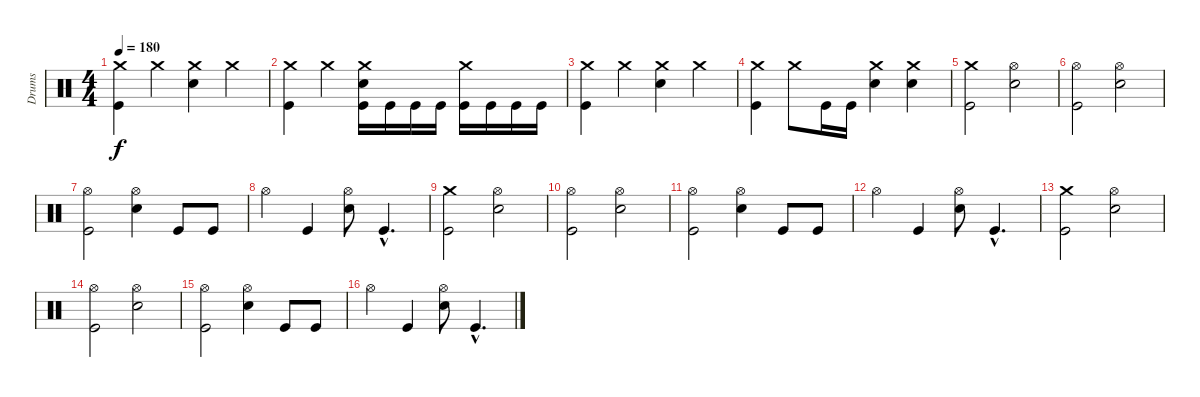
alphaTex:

\track ("Drums" "Drums") {instrument percussion}
\staff {score}
\articulation defaults
\ts (4 4)
\tempo 180
\clef neutral
\ks c
("Crash medium (hit)" "Kick (hit)").4{dy f} "Crash medium (hit)".4 ("Crash medium (hit)" "Electric Snare (hit)").4 "Crash medium (hit)".4 |
("Crash medium (hit)" "Kick (hit)").4 "Crash medium (hit)".4 ("Crash medium (hit)" "Kick (hit)" "Electric Snare (hit)").16 "Kick (hit)".16 "Kick (hit)".16 "Kick (hit)".16 ("Crash medium (hit)" "Kick (hit)").16 "Kick (hit)".16 "Kick (hit)".16 "Kick (hit)".16 |
("Crash medium (hit)" "Kick (hit)").4 "Crash medium (hit)".4 ("Crash medium (hit)" "Electric Snare (hit)").4 "Crash medium (hit)".4 |
("Crash medium (hit)" "Kick (hit)").4 "Crash medium (hit)".8 "Kick (hit)".16 "Kick (hit)".16 ("Crash medium (hit)" "Electric Snare (hit)").4 ("Crash medium (hit)" "Electric Snare (hit)").4 |
("Crash medium (hit)" "Kick (hit)").2 ("Hi-Hat (open)" "Electric Snare (hit)").2 |
("Hi-Hat (open)" "Kick (hit)").2 ("Hi-Hat (open)" "Electric Snare (hit)").2 |
("Hi-Hat (open)" "Kick (hit)").2 ("Hi-Hat (open)" "Electric Snare (hit)").4 "Kick (hit)".8 "Kick (hit)".8 |
"Hi-Hat (open)".4 "Kick (hit)".4 ("Hi-Hat (open)" "Electric Snare (hit)").8 "Kick (hit)"{hac}.4{d} |
("Crash medium (hit)" "Kick (hit)").2 ("Hi-Hat (open)" "Electric Snare (hit)").2 |
("Hi-Hat (open)" "Kick (hit)").2 ("Hi-Hat (open)" "Electric Snare (hit)").2 |
("Hi-Hat (open)" "Kick (hit)").2 ("Hi-Hat (open)" "Electric Snare (hit)").4 "Kick (hit)".8 "Kick (hit)".8 |
"Hi-Hat (open)".4 "Kick (hit)".4 ("Hi-Hat (open)" "Electric Snare (hit)").8 "Kick (hit)"{hac}.4{d} |
("Crash medium (hit)" "Kick (hit)").2 ("Hi-Hat (open)" "Electric Snare (hit)").2 |
("Hi-Hat (open)" "Kick (hit)").2 ("Hi-Hat (open)" "Electric Snare (hit)").2 |
("Hi-Hat (open)" "Kick (hit)").2 ("Hi-Hat (open)" "Electric Snare (hit)").4 "Kick (hit)".8 "Kick (hit)".8 |
"Hi-Hat (open)".4 "Kick (hit)".4 ("Hi-Hat (open)" "Electric Snare (hit)").8 "Kick (hit)"{hac}.4{d}
